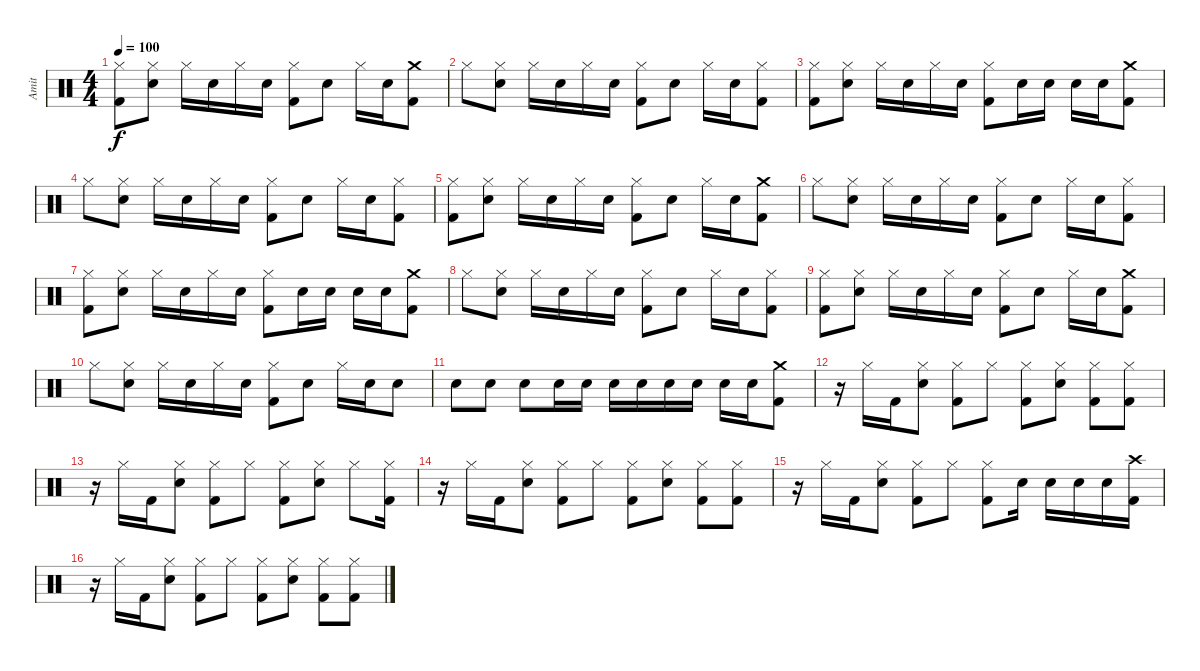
\track ("Amit" "Amit") {instrument percussion}
\staff {score}
\articulation defaults
\ts (4 4)
\tempo 100
\clef neutral
\ks c
("Hi-Hat (closed)" "Kick (hit) 2").8{dy f} ("Hi-Hat (closed)" "Snare (hit) 2").8 "Hi-Hat (closed)".16 "Snare (hit) 2".16 "Hi-Hat (closed)".16 "Snare (hit) 2".16 ("Hi-Hat (closed)" "Kick (hit) 2").8 "Snare (hit) 2".8 "Hi-Hat (closed)".16 "Snare (hit) 2".16 ("Crash medium (hit)" "Kick (hit) 2").8 |
"Hi-Hat (closed)".8 ("Hi-Hat (closed)" "Snare (hit) 2").8 "Hi-Hat (closed)".16 "Snare (hit) 2".16 "Hi-Hat (closed)".16 "Snare (hit) 2".16 ("Hi-Hat (closed)" "Kick (hit) 2").8 "Snare (hit) 2".8 "Hi-Hat (closed)".16 "Snare (hit) 2".16 ("Hi-Hat (closed)" "Kick (hit) 2").8 |
("Hi-Hat (closed)" "Kick (hit) 2").8 ("Hi-Hat (closed)" "Snare (hit) 2").8 "Hi-Hat (closed)".16 "Snare (hit) 2".16 "Hi-Hat (closed)".16 "Snare (hit) 2".16 ("Hi-Hat (closed)" "Kick (hit) 2").8 "Snare (hit) 2".16 "Snare (hit) 2".16 "Snare (hit) 2".16 "Snare (hit) 2".16 ("Crash medium (hit)" "Kick (hit) 2").8 |
"Hi-Hat (closed)".8 ("Hi-Hat (closed)" "Snare (hit) 2").8 "Hi-Hat (closed)".16 "Snare (hit) 2".16 "Hi-Hat (closed)".16 "Snare (hit) 2".16 ("Hi-Hat (closed)" "Kick (hit) 2").8 "Snare (hit) 2".8 "Hi-Hat (closed)".16 "Snare (hit) 2".16 ("Hi-Hat (closed)" "Kick (hit) 2").8 |
("Hi-Hat (closed)" "Kick (hit) 2").8 ("Hi-Hat (closed)" "Snare (hit) 2").8 "Hi-Hat (closed)".16 "Snare (hit) 2".16 "Hi-Hat (closed)".16 "Snare (hit) 2".16 ("Hi-Hat (closed)" "Kick (hit) 2").8 "Snare (hit) 2".8 "Hi-Hat (closed)".16 "Snare (hit) 2".16 ("Crash medium (hit)" "Kick (hit) 2").8 |
"Hi-Hat (closed)".8 ("Hi-Hat (closed)" "Snare (hit) 2").8 "Hi-Hat (closed)".16 "Snare (hit) 2".16 "Hi-Hat (closed)".16 "Snare (hit) 2".16 ("Hi-Hat (closed)" "Kick (hit) 2").8 "Snare (hit) 2".8 "Hi-Hat (closed)".16 "Snare (hit) 2".16 ("Hi-Hat (closed)" "Kick (hit) 2").8 |
("Hi-Hat (closed)" "Kick (hit) 2").8 ("Hi-Hat (closed)" "Snare (hit) 2").8 "Hi-Hat (closed)".16 "Snare (hit) 2".16 "Hi-Hat (closed)".16 "Snare (hit) 2".16 ("Hi-Hat (closed)" "Kick (hit) 2").8 "Snare (hit) 2".16 "Snare (hit) 2".16 "Snare (hit) 2".16 "Snare (hit) 2".16 ("Crash medium (hit)" "Kick (hit) 2").8 |
"Hi-Hat (closed)".8 ("Hi-Hat (closed)" "Snare (hit) 2").8 "Hi-Hat (closed)".16 "Snare (hit) 2".16 "Hi-Hat (closed)".16 "Snare (hit) 2".16 ("Hi-Hat (closed)" "Kick (hit) 2").8 "Snare (hit) 2".8 "Hi-Hat (closed)".16 "Snare (hit) 2".16 ("Hi-Hat (closed)" "Kick (hit) 2").8 |
("Hi-Hat (closed)" "Kick (hit) 2").8 ("Hi-Hat (closed)" "Snare (hit) 2").8 "Hi-Hat (closed)".16 "Snare (hit) 2".16 "Hi-Hat (closed)".16 "Snare (hit) 2".16 ("Hi-Hat (closed)" "Kick (hit) 2").8 "Snare (hit) 2".8 "Hi-Hat (closed)".16 "Snare (hit) 2".16 ("Crash medium (hit)" "Kick (hit) 2").8 |
"Hi-Hat (closed)".8 ("Hi-Hat (closed)" "Snare (hit) 2").8 "Hi-Hat (closed)".16 "Snare (hit) 2".16 "Hi-Hat (closed)".16 "Snare (hit) 2".16 ("Hi-Hat (closed)" "Kick (hit) 2").8 "Snare (hit) 2".8 "Hi-Hat (closed)".16 "Snare (hit) 2".16 "Snare (hit) 2".8 |
"Snare (hit) 2".8 "Snare (hit) 2".8 "Snare (hit) 2".8 "Snare (hit) 2".16 "Snare (hit) 2".16 "Snare (hit) 2".16 "Snare (hit) 2".16 "Snare (hit) 2".16 "Snare (hit) 2".16 "Snare (hit) 2".16 "Snare (hit) 2".16 ("Crash medium (hit)" "Kick (hit) 2").8 |
r.16 "Hi-Hat (closed)".16 "Kick (hit) 2".16 ("Hi-Hat (closed)" "Snare (hit) 2").8 ("Hi-Hat (closed)" "Kick (hit) 2").8 "Hi-Hat (closed)".8 ("Hi-Hat (closed)" "Kick (hit) 2").8 ("Hi-Hat (closed)" "Snare (hit) 2").8 ("Hi-Hat (closed)" "Kick (hit) 2").8 ("Hi-Hat (closed)" "Kick (hit) 2").8 |
r.16 "Hi-Hat (closed)".16 "Kick (hit) 2".16 ("Hi-Hat (closed)" "Snare (hit) 2").8 ("Hi-Hat (closed)" "Kick (hit) 2").8 "Hi-Hat (closed)".8 ("Hi-Hat (closed)" "Kick (hit) 2").8 ("Hi-Hat (closed)" "Snare (hit) 2").8 "Hi-Hat (closed)".8 ("Hi-Hat (closed)" "Kick (hit) 2").16 |
r.16 "Hi-Hat (closed)".16 "Kick (hit) 2".16 ("Hi-Hat (closed)" "Snare (hit) 2").8 ("Hi-Hat (closed)" "Kick (hit) 2").8 "Hi-Hat (closed)".8 ("Hi-Hat (closed)" "Kick (hit) 2").8 ("Hi-Hat (closed)" "Snare (hit) 2").8 ("Hi-Hat (closed)" "Kick (hit) 2").8 ("Hi-Hat (closed)" "Kick (hit) 2").8 |
r.16 "Hi-Hat (closed)".16 "Kick (hit) 2".16 ("Hi-Hat (closed)" "Snare (hit) 2").8 ("Hi-Hat (closed)" "Kick (hit) 2").8 "Hi-Hat (closed)".8 ("Hi-Hat (closed)" "Kick (hit) 2").8 "Snare (hit) 2".16 "Snare (hit) 2".16 "Snare (hit) 2".16 "Snare (hit) 2".16 ("Kick (hit) 2" "Crash high (hit)").16 |
r.16 "Hi-Hat (closed)".16 "Kick (hit) 2".16 ("Hi-Hat (closed)" "Snare (hit) 2").8 ("Hi-Hat (closed)" "Kick (hit) 2").8 "Hi-Hat (closed)".8 ("Hi-Hat (closed)" "Kick (hit) 2").8 ("Hi-Hat (closed)" "Snare (hit) 2").8 ("Hi-Hat (closed)" "Kick (hit) 2").8 ("Hi-Hat (closed)" "Kick (hit) 2").8
